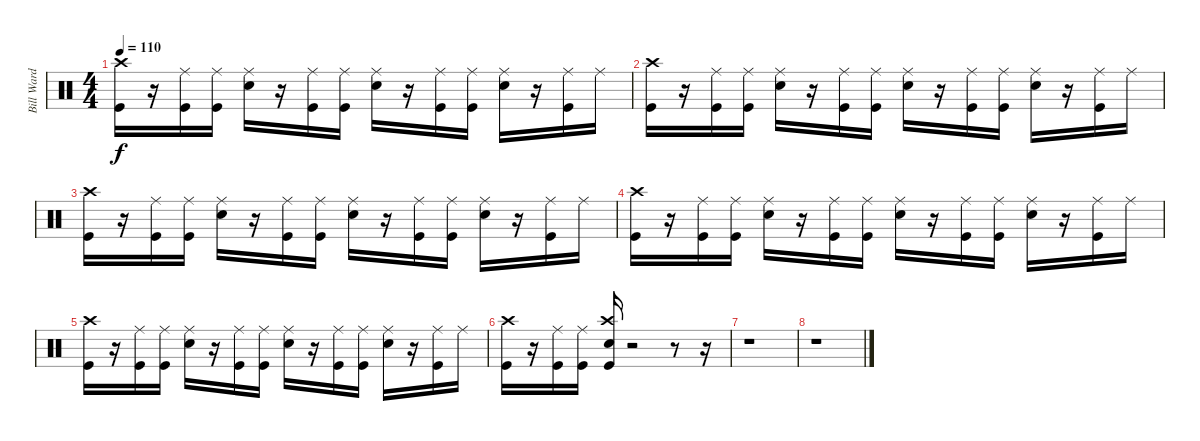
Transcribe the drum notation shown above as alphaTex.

\track ("Bill Ward" "Bill Ward") {instrument percussion}
\staff {score}
\articulation defaults
\ts (4 4)
\tempo 110
\clef neutral
\ks c
("Kick (hit)" "Crash high (hit)").16{dy f} r.16 ("Kick (hit)" "Ride (middle)").16 ("Kick (hit)" "Ride (middle)").16 ("Ride (middle)" "Snare (hit) 2").16 r.16 ("Kick (hit)" "Ride (middle)").16 ("Kick (hit)" "Ride (middle)").16 ("Ride (middle)" "Snare (hit) 2").16 r.16 ("Kick (hit)" "Ride (middle)").16 ("Kick (hit)" "Ride (middle)").16 ("Ride (middle)" "Snare (hit) 2").16 r.16 ("Kick (hit)" "Ride (middle)").16 "Ride (middle)".16 |
("Kick (hit)" "Crash high (hit)").16 r.16 ("Kick (hit)" "Ride (middle)").16 ("Kick (hit)" "Ride (middle)").16 ("Ride (middle)" "Snare (hit) 2").16 r.16 ("Kick (hit)" "Ride (middle)").16 ("Kick (hit)" "Ride (middle)").16 ("Ride (middle)" "Snare (hit) 2").16 r.16 ("Kick (hit)" "Ride (middle)").16 ("Kick (hit)" "Ride (middle)").16 ("Ride (middle)" "Snare (hit) 2").16 r.16 ("Kick (hit)" "Ride (middle)").16 "Ride (middle)".16 |
("Kick (hit)" "Crash high (hit)").16 r.16 ("Kick (hit)" "Ride (middle)").16 ("Kick (hit)" "Ride (middle)").16 ("Ride (middle)" "Snare (hit) 2").16 r.16 ("Kick (hit)" "Ride (middle)").16 ("Kick (hit)" "Ride (middle)").16 ("Ride (middle)" "Snare (hit) 2").16 r.16 ("Kick (hit)" "Ride (middle)").16 ("Kick (hit)" "Ride (middle)").16 ("Ride (middle)" "Snare (hit) 2").16 r.16 ("Kick (hit)" "Ride (middle)").16 "Ride (middle)".16 |
("Kick (hit)" "Crash high (hit)").16 r.16 ("Kick (hit)" "Ride (middle)").16 ("Kick (hit)" "Ride (middle)").16 ("Ride (middle)" "Snare (hit) 2").16 r.16 ("Kick (hit)" "Ride (middle)").16 ("Kick (hit)" "Ride (middle)").16 ("Ride (middle)" "Snare (hit) 2").16 r.16 ("Kick (hit)" "Ride (middle)").16 ("Kick (hit)" "Ride (middle)").16 ("Ride (middle)" "Snare (hit) 2").16 r.16 ("Kick (hit)" "Ride (middle)").16 "Ride (middle)".16 |
("Kick (hit)" "Crash high (hit)").16 r.16 ("Kick (hit)" "Ride (middle)").16 ("Kick (hit)" "Ride (middle)").16 ("Ride (middle)" "Snare (hit) 2").16 r.16 ("Kick (hit)" "Ride (middle)").16 ("Kick (hit)" "Ride (middle)").16 ("Ride (middle)" "Snare (hit) 2").16 r.16 ("Kick (hit)" "Ride (middle)").16 ("Kick (hit)" "Ride (middle)").16 ("Ride (middle)" "Snare (hit) 2").16 r.16 ("Kick (hit)" "Ride (middle)").16 "Ride (middle)".16 |
("Kick (hit)" "Crash high (hit)").16 r.16 ("Kick (hit)" "Ride (middle)").16 ("Kick (hit)" "Ride (middle)").16 ("Snare (hit)" "Crash high (hit)" "Kick (hit)").16 r.2 r.8 r.16 |
r.1 |
r.1
